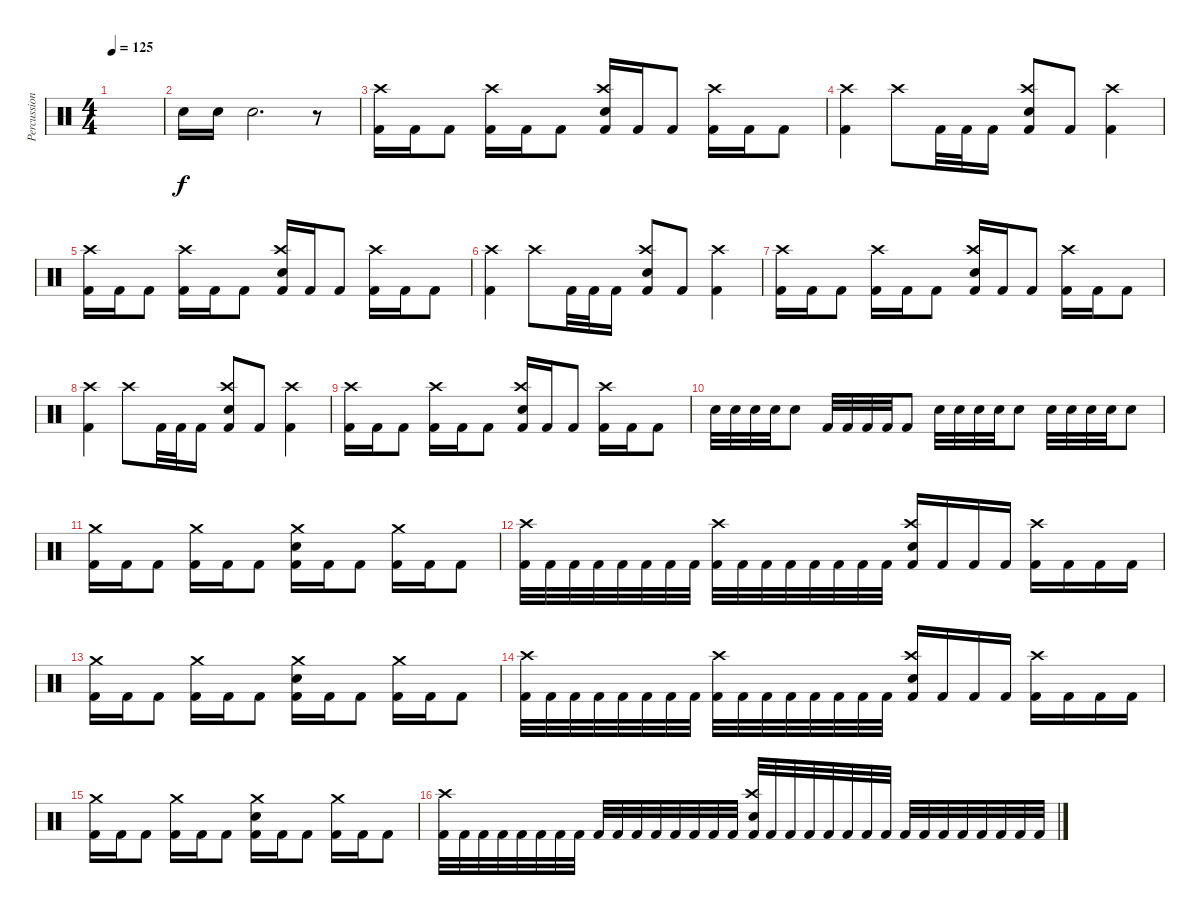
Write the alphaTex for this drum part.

\track ("Percussion" "Percussion") {instrument percussion}
\staff {score}
\articulation defaults
\ts (4 4)
\tempo 125
\clef neutral
\ks c
|
"Electric Snare (hit)".16 "Electric Snare (hit)".16 "Electric Snare (hit)".2{d} r.8 |
("Crash high (hit)" "Kick (hit) 2").16 "Kick (hit) 2".16 "Kick (hit) 2".8 ("Crash high (hit)" "Kick (hit) 2").16 "Kick (hit) 2".16 "Kick (hit) 2".8 ("Crash high (hit)" "Electric Snare (hit)" "Kick (hit) 2").16 "Kick (hit) 2".16 "Kick (hit) 2".8 ("Crash high (hit)" "Kick (hit) 2").16 "Kick (hit) 2".16 "Kick (hit) 2".8 |
("Crash high (hit)" "Kick (hit) 2").4 "Crash high (hit)".8 "Kick (hit) 2".32 "Kick (hit) 2".32 "Kick (hit) 2".16 ("Crash high (hit)" "Electric Snare (hit)" "Kick (hit) 2").8 "Kick (hit) 2".8 ("Crash high (hit)" "Kick (hit) 2").4 |
("Crash high (hit)" "Kick (hit) 2").16 "Kick (hit) 2".16 "Kick (hit) 2".8 ("Crash high (hit)" "Kick (hit) 2").16 "Kick (hit) 2".16 "Kick (hit) 2".8 ("Crash high (hit)" "Electric Snare (hit)" "Kick (hit) 2").16 "Kick (hit) 2".16 "Kick (hit) 2".8 ("Crash high (hit)" "Kick (hit) 2").16 "Kick (hit) 2".16 "Kick (hit) 2".8 |
("Crash high (hit)" "Kick (hit) 2").4 "Crash high (hit)".8 "Kick (hit) 2".32 "Kick (hit) 2".32 "Kick (hit) 2".16 ("Crash high (hit)" "Electric Snare (hit)" "Kick (hit) 2").8 "Kick (hit) 2".8 ("Crash high (hit)" "Kick (hit) 2").4 |
("Crash high (hit)" "Kick (hit) 2").16 "Kick (hit) 2".16 "Kick (hit) 2".8 ("Crash high (hit)" "Kick (hit) 2").16 "Kick (hit) 2".16 "Kick (hit) 2".8 ("Crash high (hit)" "Electric Snare (hit)" "Kick (hit) 2").16 "Kick (hit) 2".16 "Kick (hit) 2".8 ("Crash high (hit)" "Kick (hit) 2").16 "Kick (hit) 2".16 "Kick (hit) 2".8 |
("Crash high (hit)" "Kick (hit) 2").4 "Crash high (hit)".8 "Kick (hit) 2".32 "Kick (hit) 2".32 "Kick (hit) 2".16 ("Crash high (hit)" "Electric Snare (hit)" "Kick (hit) 2").8 "Kick (hit) 2".8 ("Crash high (hit)" "Kick (hit) 2").4 |
("Crash high (hit)" "Kick (hit) 2").16 "Kick (hit) 2".16 "Kick (hit) 2".8 ("Crash high (hit)" "Kick (hit) 2").16 "Kick (hit) 2".16 "Kick (hit) 2".8 ("Crash high (hit)" "Electric Snare (hit)" "Kick (hit) 2").16 "Kick (hit) 2".16 "Kick (hit) 2".8 ("Crash high (hit)" "Kick (hit) 2").16 "Kick (hit) 2".16 "Kick (hit) 2".8 |
"Electric Snare (hit)".32 "Electric Snare (hit)".32 "Electric Snare (hit)".32 "Electric Snare (hit)".32 "Electric Snare (hit)".8 "Kick (hit) 2".32 "Kick (hit) 2".32 "Kick (hit) 2".32 "Kick (hit) 2".32 "Kick (hit) 2".8 "Electric Snare (hit)".32 "Electric Snare (hit)".32 "Electric Snare (hit)".32 "Electric Snare (hit)".32 "Electric Snare (hit)".8 "Electric Snare (hit)".32 "Electric Snare (hit)".32 "Electric Snare (hit)".32 "Electric Snare (hit)".32 "Electric Snare (hit)".8 |
("Crash medium (hit)" "Kick (hit) 2").16 "Kick (hit) 2".16 "Kick (hit) 2".8 ("Crash medium (hit)" "Kick (hit) 2").16 "Kick (hit) 2".16 "Kick (hit) 2".8 ("Crash medium (hit)" "Electric Snare (hit)" "Kick (hit) 2").16 "Kick (hit) 2".16 "Kick (hit) 2".8 ("Crash medium (hit)" "Kick (hit) 2").16 "Kick (hit) 2".16 "Kick (hit) 2".8 |
("Crash high (hit)" "Kick (hit) 2").32 "Kick (hit) 2".32 "Kick (hit) 2".32 "Kick (hit) 2".32 "Kick (hit) 2".32 "Kick (hit) 2".32 "Kick (hit) 2".32 "Kick (hit) 2".32 ("Crash high (hit)" "Kick (hit) 2").32 "Kick (hit) 2".32 "Kick (hit) 2".32 "Kick (hit) 2".32 "Kick (hit) 2".32 "Kick (hit) 2".32 "Kick (hit) 2".32 "Kick (hit) 2".32 ("Crash high (hit)" "Electric Snare (hit)" "Kick (hit) 2").16 "Kick (hit) 2".16 "Kick (hit) 2".16 "Kick (hit) 2".16 ("Crash high (hit)" "Kick (hit) 2").16 "Kick (hit) 2".16 "Kick (hit) 2".16 "Kick (hit) 2".16 |
("Crash medium (hit)" "Kick (hit) 2").16 "Kick (hit) 2".16 "Kick (hit) 2".8 ("Crash medium (hit)" "Kick (hit) 2").16 "Kick (hit) 2".16 "Kick (hit) 2".8 ("Crash medium (hit)" "Electric Snare (hit)" "Kick (hit) 2").16 "Kick (hit) 2".16 "Kick (hit) 2".8 ("Crash medium (hit)" "Kick (hit) 2").16 "Kick (hit) 2".16 "Kick (hit) 2".8 |
("Crash high (hit)" "Kick (hit) 2").32 "Kick (hit) 2".32 "Kick (hit) 2".32 "Kick (hit) 2".32 "Kick (hit) 2".32 "Kick (hit) 2".32 "Kick (hit) 2".32 "Kick (hit) 2".32 ("Crash high (hit)" "Kick (hit) 2").32 "Kick (hit) 2".32 "Kick (hit) 2".32 "Kick (hit) 2".32 "Kick (hit) 2".32 "Kick (hit) 2".32 "Kick (hit) 2".32 "Kick (hit) 2".32 ("Crash high (hit)" "Electric Snare (hit)" "Kick (hit) 2").16 "Kick (hit) 2".16 "Kick (hit) 2".16 "Kick (hit) 2".16 ("Crash high (hit)" "Kick (hit) 2").16 "Kick (hit) 2".16 "Kick (hit) 2".16 "Kick (hit) 2".16 |
("Crash medium (hit)" "Kick (hit) 2").16 "Kick (hit) 2".16 "Kick (hit) 2".8 ("Crash medium (hit)" "Kick (hit) 2").16 "Kick (hit) 2".16 "Kick (hit) 2".8 ("Crash medium (hit)" "Electric Snare (hit)" "Kick (hit) 2").16 "Kick (hit) 2".16 "Kick (hit) 2".8 ("Crash medium (hit)" "Kick (hit) 2").16 "Kick (hit) 2".16 "Kick (hit) 2".8 |
("Crash high (hit)" "Kick (hit) 2").32 "Kick (hit) 2".32 "Kick (hit) 2".32 "Kick (hit) 2".32 "Kick (hit) 2".32 "Kick (hit) 2".32 "Kick (hit) 2".32 "Kick (hit) 2".32 "Kick (hit) 2".32 "Kick (hit) 2".32 "Kick (hit) 2".32 "Kick (hit) 2".32 "Kick (hit) 2".32 "Kick (hit) 2".32 "Kick (hit) 2".32 "Kick (hit) 2".32 ("Crash high (hit)" "Electric Snare (hit)" "Kick (hit) 2").32 "Kick (hit) 2".32 "Kick (hit) 2".32 "Kick (hit) 2".32 "Kick (hit) 2".32 "Kick (hit) 2".32 "Kick (hit) 2".32 "Kick (hit) 2".32 "Kick (hit) 2".32 "Kick (hit) 2".32 "Kick (hit) 2".32 "Kick (hit) 2".32 "Kick (hit) 2".32 "Kick (hit) 2".32 "Kick (hit) 2".32 "Kick (hit) 2".32
